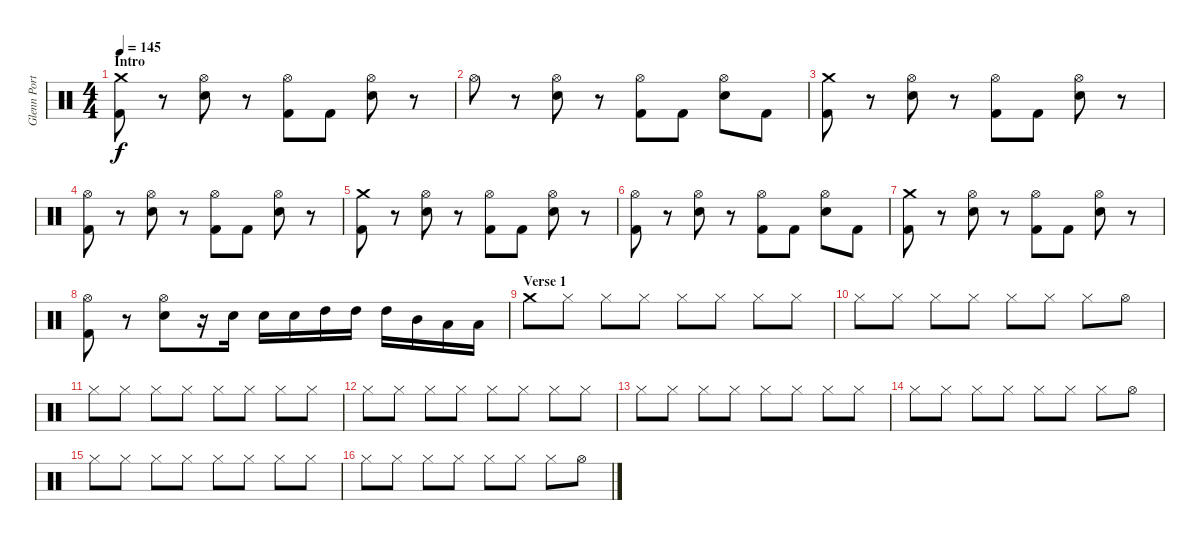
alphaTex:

\track ("Glenn Porter - Drums" "Glenn Port") {instrument percussion}
\staff {score}
\articulation defaults
\ts (4 4)
\section ("" "Intro ")
\tempo 145
\clef neutral
\ks c
("Crash medium (hit)" "Kick (hit) 2").8{dy f} r.8 ("Hi-Hat (open)" "Electric Snare (hit)").8 r.8 ("Hi-Hat (open)" "Kick (hit) 2").8 "Kick (hit) 2".8 ("Hi-Hat (open)" "Electric Snare (hit)").8 r.8 |
"Hi-Hat (open)".8 r.8 ("Hi-Hat (open)" "Electric Snare (hit)").8 r.8 ("Hi-Hat (open)" "Kick (hit) 2").8 "Kick (hit) 2".8 ("Hi-Hat (open)" "Electric Snare (hit)").8 "Kick (hit) 2".8 |
("Crash medium (hit)" "Kick (hit) 2").8 r.8 ("Hi-Hat (open)" "Electric Snare (hit)").8 r.8 ("Hi-Hat (open)" "Kick (hit) 2").8 "Kick (hit) 2".8 ("Hi-Hat (open)" "Electric Snare (hit)").8 r.8 |
("Hi-Hat (open)" "Kick (hit) 2").8 r.8 ("Hi-Hat (open)" "Electric Snare (hit)").8 r.8 ("Hi-Hat (open)" "Kick (hit) 2").8 "Kick (hit) 2".8 ("Hi-Hat (open)" "Electric Snare (hit)").8 r.8 |
("Crash medium (hit)" "Kick (hit) 2").8 r.8 ("Hi-Hat (open)" "Electric Snare (hit)").8 r.8 ("Hi-Hat (open)" "Kick (hit) 2").8 "Kick (hit) 2".8 ("Hi-Hat (open)" "Electric Snare (hit)").8 r.8 |
("Hi-Hat (open)" "Kick (hit) 2").8 r.8 ("Hi-Hat (open)" "Electric Snare (hit)").8 r.8 ("Hi-Hat (open)" "Kick (hit) 2").8 "Kick (hit) 2".8 ("Hi-Hat (open)" "Electric Snare (hit)").8 "Kick (hit) 2".8 |
("Crash medium (hit)" "Kick (hit) 2").8 r.8 ("Hi-Hat (open)" "Electric Snare (hit)").8 r.8 ("Hi-Hat (open)" "Kick (hit) 2").8 "Kick (hit) 2".8 ("Hi-Hat (open)" "Electric Snare (hit)").8 r.8 |
("Hi-Hat (open)" "Kick (hit) 2").8 r.8 ("Hi-Hat (open)" "Electric Snare (hit)").8 r.16 "Electric Snare (hit)".16 "Electric Snare (hit)".16 "Electric Snare (hit)".16 "High Tom (hit)".16 "High Tom (hit)".16 "High Tom (hit)".16 "Mid Tom (hit)".16 "Low Tom (hit)".16 "Low Tom (hit)".16 |
\section ("" "Verse 1")
"Crash medium (hit)".8 "Hi-Hat (closed)".8 "Hi-Hat (closed)".8 "Hi-Hat (closed)".8 "Hi-Hat (closed)".8 "Hi-Hat (closed)".8 "Hi-Hat (closed)".8 "Hi-Hat (closed)".8 |
"Hi-Hat (closed)".8 "Hi-Hat (closed)".8 "Hi-Hat (closed)".8 "Hi-Hat (closed)".8 "Hi-Hat (closed)".8 "Hi-Hat (closed)".8 "Hi-Hat (closed)".8 "Hi-Hat (open)".8 |
"Hi-Hat (closed)".8 "Hi-Hat (closed)".8 "Hi-Hat (closed)".8 "Hi-Hat (closed)".8 "Hi-Hat (closed)".8 "Hi-Hat (closed)".8 "Hi-Hat (closed)".8 "Hi-Hat (closed)".8 |
"Hi-Hat (closed)".8 "Hi-Hat (closed)".8 "Hi-Hat (closed)".8 "Hi-Hat (closed)".8 "Hi-Hat (closed)".8 "Hi-Hat (closed)".8 "Hi-Hat (closed)".8 "Hi-Hat (closed)".8 |
"Hi-Hat (closed)".8 "Hi-Hat (closed)".8 "Hi-Hat (closed)".8 "Hi-Hat (closed)".8 "Hi-Hat (closed)".8 "Hi-Hat (closed)".8 "Hi-Hat (closed)".8 "Hi-Hat (closed)".8 |
"Hi-Hat (closed)".8 "Hi-Hat (closed)".8 "Hi-Hat (closed)".8 "Hi-Hat (closed)".8 "Hi-Hat (closed)".8 "Hi-Hat (closed)".8 "Hi-Hat (closed)".8 "Hi-Hat (open)".8 |
"Hi-Hat (closed)".8 "Hi-Hat (closed)".8 "Hi-Hat (closed)".8 "Hi-Hat (closed)".8 "Hi-Hat (closed)".8 "Hi-Hat (closed)".8 "Hi-Hat (closed)".8 "Hi-Hat (closed)".8 |
"Hi-Hat (closed)".8 "Hi-Hat (closed)".8 "Hi-Hat (closed)".8 "Hi-Hat (closed)".8 "Hi-Hat (closed)".8 "Hi-Hat (closed)".8 "Hi-Hat (closed)".8 "Hi-Hat (open)".8
